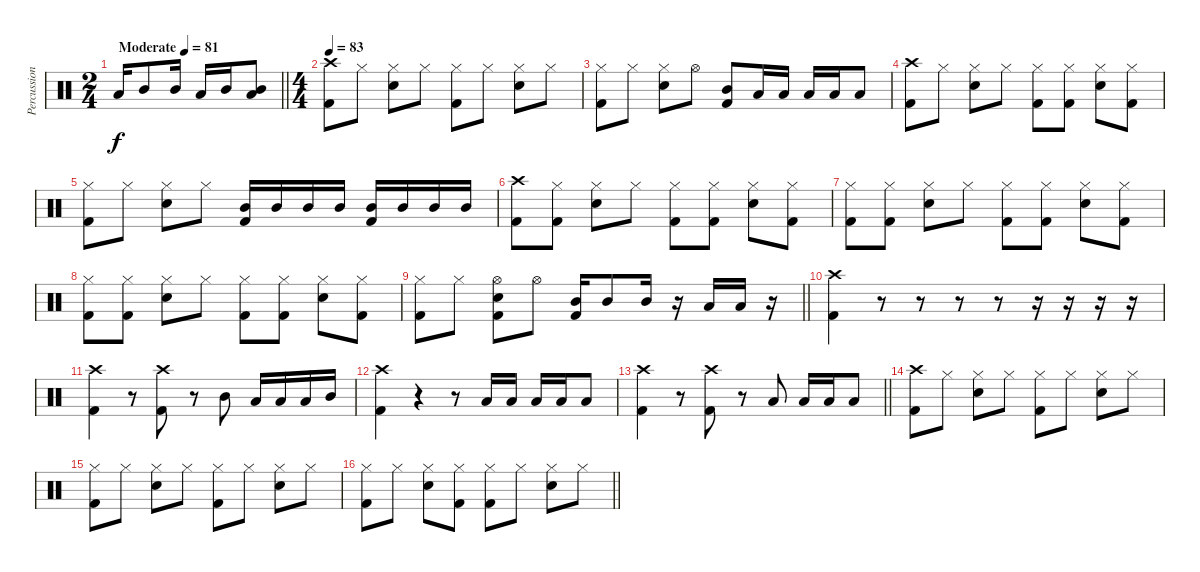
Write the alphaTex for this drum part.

\track ("Percussion" "Percussion") {instrument percussion}
\staff {score}
\articulation defaults
\ts (2 4)
\tempo (81 "Moderate")
\tempo 67
\tempo (81 "Moderate")
\clef neutral
\barLineRight lightlight
\ks c "Low Tom (hit)".16{dy f} "Mid Tom (hit)".8 "Mid Tom (hit)".16 "Low Tom (hit)".16 "Mid Tom (hit)".16
("Mid Tom (hit)" "Low Tom (hit)").8 |
\ts (4 4)
\tempo 83
("Crash high (hit)" "Kick (hit) 2").8 "Hi-Hat (closed)".8 ("Hi-Hat (closed)" "Snare (hit) 2").8 "Hi-Hat (closed)".8 ("Hi-Hat (closed)" "Kick (hit) 2").8 "Hi-Hat (closed)".8 ("Hi-Hat (closed)" "Snare (hit) 2").8 "Hi-Hat (closed)".8 |
("Hi-Hat (closed)" "Kick (hit) 2").8 "Hi-Hat (closed)".8 ("Hi-Hat (closed)" "Snare (hit) 2").8 "Hi-Hat (open)".8 ("Mid Tom (hit)" "Kick (hit) 2").8 "Low Floor Tom (hit)".16 "Low Floor Tom (hit)".16 "Low Floor Tom (hit)".16 "Low Floor Tom (hit)".16 "Low Floor Tom (hit)".8 |
("Crash high (hit)" "Kick (hit) 2").8 "Hi-Hat (closed)".8 ("Hi-Hat (closed)" "Snare (hit) 2").8 "Hi-Hat (closed)".8 ("Hi-Hat (closed)" "Kick (hit) 2").8 ("Hi-Hat (closed)" "Kick (hit) 2").8 ("Hi-Hat (closed)" "Snare (hit) 2").8 ("Hi-Hat (closed)" "Kick (hit) 2").8 |
("Hi-Hat (closed)" "Kick (hit) 2").8 "Hi-Hat (closed)".8 ("Hi-Hat (closed)" "Snare (hit) 2").8 "Hi-Hat (closed)".8 ("Mid Tom (hit)" "Kick (hit) 2").16 "Mid Tom (hit)".16 "Mid Tom (hit)".16 "Mid Tom (hit)".16 ("Mid Tom (hit)" "Kick (hit) 2").16 "Mid Tom (hit)".16 "Mid Tom (hit)".16 "Mid Tom (hit)".16 |
("Crash high (hit)" "Kick (hit) 2").8 ("Hi-Hat (closed)" "Kick (hit) 2").8 ("Hi-Hat (closed)" "Snare (hit) 2").8 "Hi-Hat (closed)".8 ("Hi-Hat (closed)" "Kick (hit) 2").8 ("Hi-Hat (closed)" "Kick (hit) 2").8 ("Hi-Hat (closed)" "Snare (hit) 2").8 ("Hi-Hat (closed)" "Kick (hit) 2").8 |
("Hi-Hat (closed)" "Kick (hit) 2").8 ("Hi-Hat (closed)" "Kick (hit) 2").8 ("Hi-Hat (closed)" "Snare (hit) 2").8 "Hi-Hat (closed)".8 ("Hi-Hat (closed)" "Kick (hit) 2").8 ("Hi-Hat (closed)" "Kick (hit) 2").8 ("Hi-Hat (closed)" "Snare (hit) 2").8 ("Hi-Hat (closed)" "Kick (hit) 2").8 |
("Hi-Hat (closed)" "Kick (hit) 2").8 ("Hi-Hat (closed)" "Kick (hit) 2").8 ("Hi-Hat (closed)" "Snare (hit) 2").8 "Hi-Hat (closed)".8 ("Hi-Hat (closed)" "Kick (hit) 2").8 ("Hi-Hat (closed)" "Kick (hit) 2").8 ("Hi-Hat (closed)" "Snare (hit) 2").8 ("Hi-Hat (closed)" "Kick (hit) 2").8 |
\barLineRight lightlight
("Hi-Hat (closed)" "Kick (hit) 2").8 "Hi-Hat (closed)".8 ("Hi-Hat (open)" "Snare (hit) 2" "Kick (hit) 2").8 "Hi-Hat (open)".8 ("Mid Tom (hit)" "Kick (hit) 2").16 "Mid Tom (hit)".8 "Mid Tom (hit)".16 r.16 "Low Floor Tom (hit)".16 "Low Floor Tom (hit)".16 r.16 |
("Crash high (hit)" "Kick (hit) 2").4 r.8 r.8 r.8 r.8 r.16 r.16 r.16 r.16 |
("Crash high (hit)" "Kick (hit) 2").4 r.8 ("Crash high (hit)" "Kick (hit) 2").8 r.8 "Mid Tom (hit)".8 "Low Floor Tom (hit)".16 "Low Floor Tom (hit)".16 "Low Floor Tom (hit)".16 "Mid Tom (hit)".16 |
("Crash high (hit)" "Kick (hit) 2").4 r.4 r.8 "Low Floor Tom (hit)".16 "Low Floor Tom (hit)".16 "Low Floor Tom (hit)".16 "Low Floor Tom (hit)".16 "Low Floor Tom (hit)".8 |
\barLineRight lightlight
("Crash high (hit)" "Kick (hit) 2").4 r.8 ("Crash high (hit)" "Kick (hit) 2").8 r.8 "Low Floor Tom (hit)".8 "Low Floor Tom (hit)".16 "Low Floor Tom (hit)".16 "Low Floor Tom (hit)".8 |
("Crash high (hit)" "Kick (hit) 2").8 "Hi-Hat (closed)".8 ("Hi-Hat (closed)" "Snare (hit) 2").8 "Hi-Hat (closed)".8 ("Hi-Hat (closed)" "Kick (hit) 2").8 "Hi-Hat (closed)".8 ("Hi-Hat (closed)" "Snare (hit) 2").8 "Hi-Hat (closed)".8 |
("Hi-Hat (closed)" "Kick (hit) 2").8 "Hi-Hat (closed)".8 ("Hi-Hat (closed)" "Snare (hit) 2").8 "Hi-Hat (closed)".8 ("Hi-Hat (closed)" "Kick (hit) 2").8 "Hi-Hat (closed)".8 ("Hi-Hat (closed)" "Snare (hit) 2").8 "Hi-Hat (closed)".8 |
\barLineRight lightlight
("Hi-Hat (closed)" "Kick (hit) 2").8 "Hi-Hat (closed)".8 ("Hi-Hat (closed)" "Snare (hit) 2").8 ("Hi-Hat (closed)" "Kick (hit) 2").8 ("Hi-Hat (closed)" "Kick (hit) 2").8 "Hi-Hat (closed)".8 ("Hi-Hat (closed)" "Snare (hit) 2").8 "Hi-Hat (closed)".8
